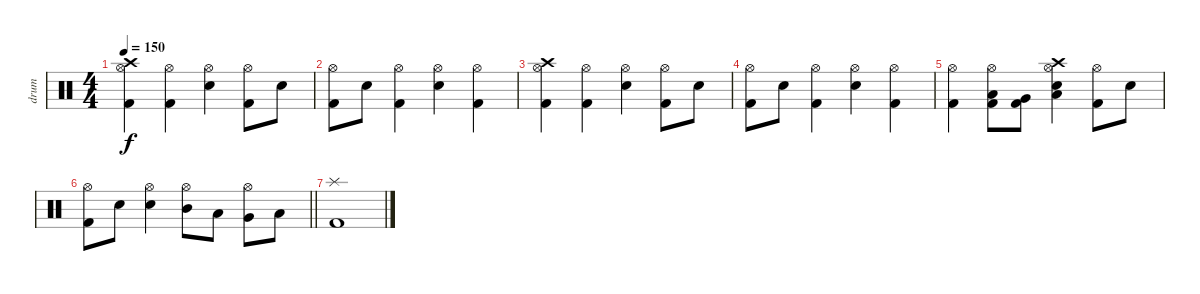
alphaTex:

\track ("drum" "drum") {instrument percussion}
\staff {score}
\articulation defaults
\ts (4 4)
\tempo 150
\clef neutral
\ks c
("Crash high (hit)" "Hi-Hat (open)" "Kick (hit) 2").4{dy f} ("Hi-Hat (open)" "Kick (hit) 2").4 ("Hi-Hat (open)" "Electric Snare (hit)").4 ("Hi-Hat (open)" "Kick (hit) 2").8 "Electric Snare (hit)".8 |
("Hi-Hat (open)" "Kick (hit) 2").8 "Electric Snare (hit)".8 ("Hi-Hat (open)" "Kick (hit) 2").4 ("Hi-Hat (open)" "Electric Snare (hit)").4 ("Hi-Hat (open)" "Kick (hit) 2").4 |
("Crash high (hit)" "Hi-Hat (open)" "Kick (hit) 2").4 ("Hi-Hat (open)" "Kick (hit) 2").4 ("Hi-Hat (open)" "Electric Snare (hit)").4 ("Hi-Hat (open)" "Kick (hit) 2").8 "Electric Snare (hit)".8 |
("Hi-Hat (open)" "Kick (hit) 2").8 "Electric Snare (hit)".8 ("Hi-Hat (open)" "Kick (hit) 2").4 ("Hi-Hat (open)" "Electric Snare (hit)").4 ("Hi-Hat (open)" "Kick (hit) 2").4 |
("Hi-Hat (open)" "Kick (hit) 2").4 ("Hi-Hat (open)" "Low Tom (hit)" "Kick (hit) 2").8 ("Very Low Tom (hit)" "Kick (hit) 2").8 ("Crash high (hit)" "Hi-Hat (open)" "Electric Snare (hit)" "Low Floor Tom (hit)").4 ("Hi-Hat (open)" "Kick (hit) 2").8 "Electric Snare (hit)".8 |
\barLineRight lightlight
("Hi-Hat (open)" "Kick (hit) 2").8 "Electric Snare (hit)".8 ("Hi-Hat (open)" "Electric Snare (hit)").4 ("Hi-Hat (open)" "Mid Tom (hit)").8 "Low Tom (hit)".8 ("Hi-Hat (open)" "Very Low Tom (hit)").8 "Low Floor Tom (hit)".8 |
("Splash (hit)" "Kick (hit) 2").1
